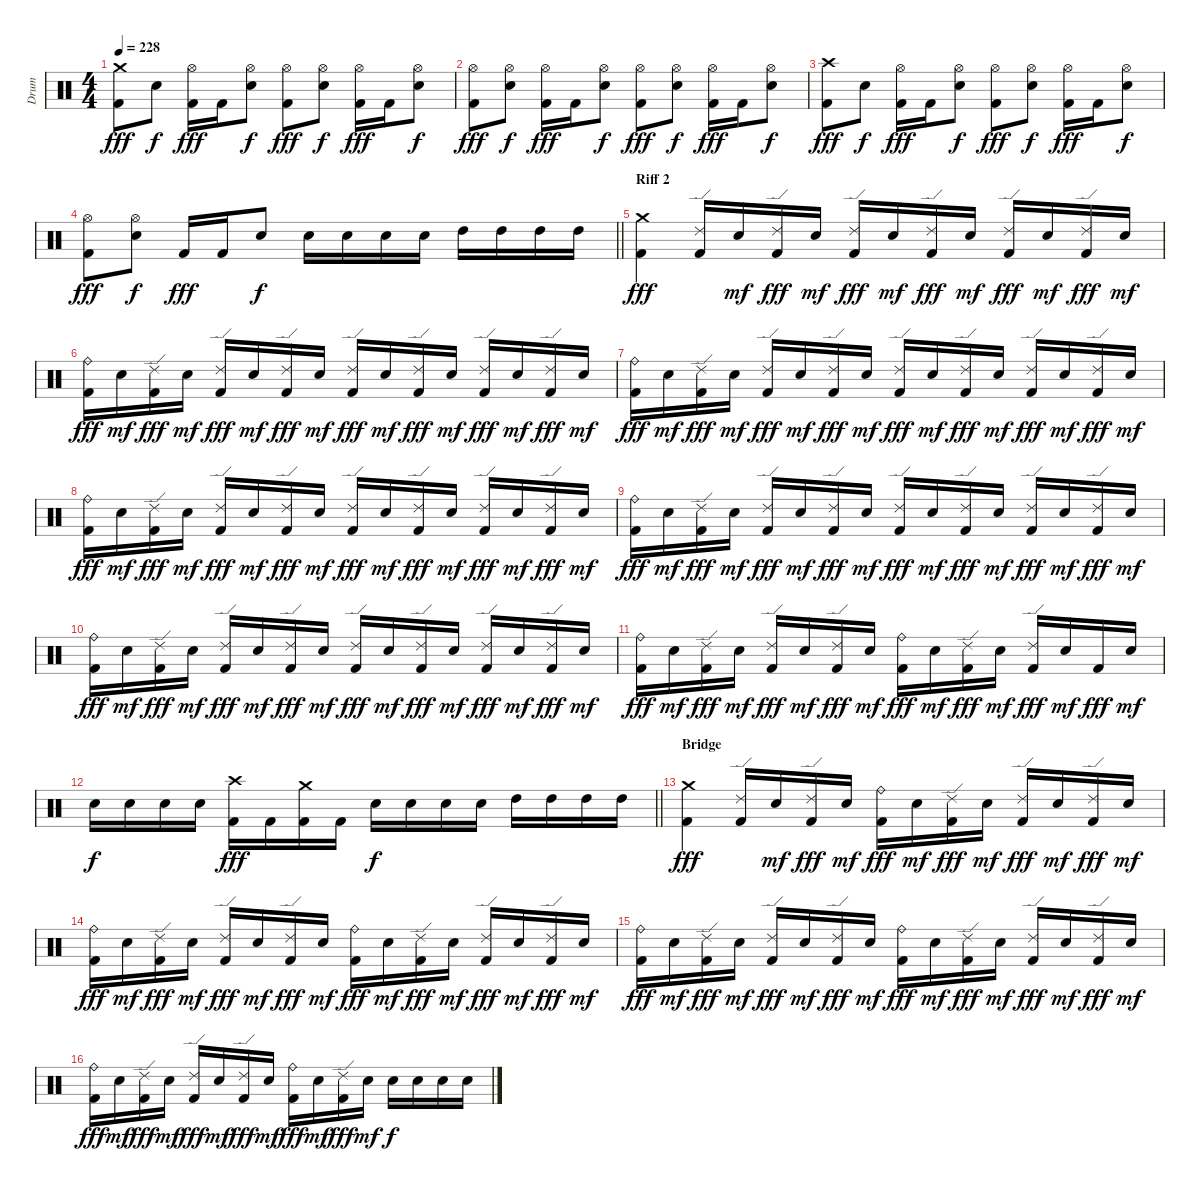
\track ("Drum" "Drum") {instrument percussion}
\staff {score}
\articulation defaults
\ts (4 4)
\tempo 228
\clef neutral
\ks c
("Crash medium (hit)" "Kick (hit) 2").8{dy fff} "Snare (hit) 2".8{dy f} ("Hi-Hat (open)" "Kick (hit) 2").16{dy fff} "Kick (hit) 2".16 ("Hi-Hat (open)" "Snare (hit) 2").8{dy f} ("Hi-Hat (open)" "Kick (hit) 2").8{dy fff} ("Hi-Hat (open)" "Snare (hit) 2").8{dy f} ("Hi-Hat (open)" "Kick (hit) 2").16{dy fff} "Kick (hit) 2".16 ("Hi-Hat (open)" "Snare (hit) 2").8{dy f} |
("Hi-Hat (open)" "Kick (hit) 2").8{dy fff} ("Hi-Hat (open)" "Snare (hit) 2").8{dy f} ("Hi-Hat (open)" "Kick (hit) 2").16{dy fff} "Kick (hit) 2".16 ("Hi-Hat (open)" "Snare (hit) 2").8{dy f} ("Hi-Hat (open)" "Kick (hit) 2").8{dy fff} ("Hi-Hat (open)" "Snare (hit) 2").8{dy f} ("Hi-Hat (open)" "Kick (hit) 2").16{dy fff} "Kick (hit) 2".16 ("Hi-Hat (open)" "Snare (hit) 2").8{dy f} |
("Crash high (hit)" "Kick (hit) 2").8{dy fff} "Snare (hit) 2".8{dy f} ("Hi-Hat (open)" "Kick (hit) 2").16{dy fff} "Kick (hit) 2".16 ("Hi-Hat (open)" "Snare (hit) 2").8{dy f} ("Hi-Hat (open)" "Kick (hit) 2").8{dy fff} ("Hi-Hat (open)" "Snare (hit) 2").8{dy f} ("Hi-Hat (open)" "Kick (hit) 2").16{dy fff} "Kick (hit) 2".16 ("Hi-Hat (open)" "Snare (hit) 2").8{dy f} |
\barLineRight lightlight
("Hi-Hat (open)" "Kick (hit) 2").8{dy fff} ("Hi-Hat (open)" "Snare (hit) 2").8{dy f} "Kick (hit) 2".16{dy fff} "Kick (hit) 2".16 "Snare (hit) 2".8{dy f} "Snare (hit) 2".16 "Snare (hit) 2".16 "Snare (hit) 2".16 "Snare (hit) 2".16 "High Tom (hit)".16 "High Tom (hit)".16 "High Tom (hit)".16 "High Tom (hit)".16 |
\section ("" "Riff 2")
("Crash medium (hit)" "Kick (hit) 2").4{dy fff} ("Ride (edge) 2" "Kick (hit) 2").16 "Snare (hit) 2".16{dy mf} ("Ride (edge) 2" "Kick (hit) 2").16{dy fff} "Snare (hit) 2".16{dy mf} ("Ride (edge) 2" "Kick (hit) 2").16{dy fff} "Snare (hit) 2".16{dy mf} ("Ride (edge) 2" "Kick (hit) 2").16{dy fff} "Snare (hit) 2".16{dy mf} ("Ride (edge) 2" "Kick (hit) 2").16{dy fff} "Snare (hit) 2".16{dy mf} ("Ride (edge) 2" "Kick (hit) 2").16{dy fff} "Snare (hit) 2".16{dy mf} |
("Ride (bell)" "Kick (hit) 2").16{dy fff} "Snare (hit) 2".16{dy mf} ("Ride (edge) 2" "Kick (hit) 2").16{dy fff} "Snare (hit) 2".16{dy mf} ("Ride (edge) 2" "Kick (hit) 2").16{dy fff} "Snare (hit) 2".16{dy mf} ("Ride (edge) 2" "Kick (hit) 2").16{dy fff} "Snare (hit) 2".16{dy mf} ("Ride (edge) 2" "Kick (hit) 2").16{dy fff} "Snare (hit) 2".16{dy mf} ("Ride (edge) 2" "Kick (hit) 2").16{dy fff} "Snare (hit) 2".16{dy mf} ("Ride (edge) 2" "Kick (hit) 2").16{dy fff} "Snare (hit) 2".16{dy mf} ("Ride (edge) 2" "Kick (hit) 2").16{dy fff} "Snare (hit) 2".16{dy mf} |
("Ride (bell)" "Kick (hit) 2").16{dy fff} "Snare (hit) 2".16{dy mf} ("Ride (edge) 2" "Kick (hit) 2").16{dy fff} "Snare (hit) 2".16{dy mf} ("Ride (edge) 2" "Kick (hit) 2").16{dy fff} "Snare (hit) 2".16{dy mf} ("Ride (edge) 2" "Kick (hit) 2").16{dy fff} "Snare (hit) 2".16{dy mf} ("Ride (edge) 2" "Kick (hit) 2").16{dy fff} "Snare (hit) 2".16{dy mf} ("Ride (edge) 2" "Kick (hit) 2").16{dy fff} "Snare (hit) 2".16{dy mf} ("Ride (edge) 2" "Kick (hit) 2").16{dy fff} "Snare (hit) 2".16{dy mf} ("Ride (edge) 2" "Kick (hit) 2").16{dy fff} "Snare (hit) 2".16{dy mf} |
("Ride (bell)" "Kick (hit) 2").16{dy fff} "Snare (hit) 2".16{dy mf} ("Ride (edge) 2" "Kick (hit) 2").16{dy fff} "Snare (hit) 2".16{dy mf} ("Ride (edge) 2" "Kick (hit) 2").16{dy fff} "Snare (hit) 2".16{dy mf} ("Ride (edge) 2" "Kick (hit) 2").16{dy fff} "Snare (hit) 2".16{dy mf} ("Ride (edge) 2" "Kick (hit) 2").16{dy fff} "Snare (hit) 2".16{dy mf} ("Ride (edge) 2" "Kick (hit) 2").16{dy fff} "Snare (hit) 2".16{dy mf} ("Ride (edge) 2" "Kick (hit) 2").16{dy fff} "Snare (hit) 2".16{dy mf} ("Ride (edge) 2" "Kick (hit) 2").16{dy fff} "Snare (hit) 2".16{dy mf} |
("Ride (bell)" "Kick (hit) 2").16{dy fff} "Snare (hit) 2".16{dy mf} ("Ride (edge) 2" "Kick (hit) 2").16{dy fff} "Snare (hit) 2".16{dy mf} ("Ride (edge) 2" "Kick (hit) 2").16{dy fff} "Snare (hit) 2".16{dy mf} ("Ride (edge) 2" "Kick (hit) 2").16{dy fff} "Snare (hit) 2".16{dy mf} ("Ride (edge) 2" "Kick (hit) 2").16{dy fff} "Snare (hit) 2".16{dy mf} ("Ride (edge) 2" "Kick (hit) 2").16{dy fff} "Snare (hit) 2".16{dy mf} ("Ride (edge) 2" "Kick (hit) 2").16{dy fff} "Snare (hit) 2".16{dy mf} ("Ride (edge) 2" "Kick (hit) 2").16{dy fff} "Snare (hit) 2".16{dy mf} |
("Ride (bell)" "Kick (hit) 2").16{dy fff} "Snare (hit) 2".16{dy mf} ("Ride (edge) 2" "Kick (hit) 2").16{dy fff} "Snare (hit) 2".16{dy mf} ("Ride (edge) 2" "Kick (hit) 2").16{dy fff} "Snare (hit) 2".16{dy mf} ("Ride (edge) 2" "Kick (hit) 2").16{dy fff} "Snare (hit) 2".16{dy mf} ("Ride (edge) 2" "Kick (hit) 2").16{dy fff} "Snare (hit) 2".16{dy mf} ("Ride (edge) 2" "Kick (hit) 2").16{dy fff} "Snare (hit) 2".16{dy mf} ("Ride (edge) 2" "Kick (hit) 2").16{dy fff} "Snare (hit) 2".16{dy mf} ("Ride (edge) 2" "Kick (hit) 2").16{dy fff} "Snare (hit) 2".16{dy mf} |
("Ride (bell)" "Kick (hit) 2").16{dy fff} "Snare (hit) 2".16{dy mf} ("Ride (edge) 2" "Kick (hit) 2").16{dy fff} "Snare (hit) 2".16{dy mf} ("Ride (edge) 2" "Kick (hit) 2").16{dy fff} "Snare (hit) 2".16{dy mf} ("Ride (edge) 2" "Kick (hit) 2").16{dy fff} "Snare (hit) 2".16{dy mf} ("Ride (bell)" "Kick (hit) 2").16{dy fff} "Snare (hit) 2".16{dy mf} ("Ride (edge) 2" "Kick (hit) 2").16{dy fff} "Snare (hit) 2".16{dy mf} ("Ride (edge) 2" "Kick (hit) 2").16{dy fff} "Snare (hit) 2".16{dy mf} "Kick (hit) 2".16{dy fff} "Snare (hit) 2".16{dy mf} |
\barLineRight lightlight "Snare (hit) 2".16{dy f} "Snare (hit) 2".16 "Snare (hit) 2".16 "Snare (hit) 2".16
("Crash high (hit)" "Kick (hit) 2").16{dy fff} "Kick (hit) 2".16 ("Crash medium (hit)" "Kick (hit) 2").16 "Kick (hit) 2".16 "Snare (hit) 2".16{dy f} "Snare (hit) 2".16 "Snare (hit) 2".16 "Snare (hit) 2".16 "High Tom (hit)".16 "High Tom (hit)".16 "High Tom (hit)".16 "High Tom (hit)".16 |
\section ("" "Bridge")
("Crash medium (hit)" "Kick (hit) 2").4{dy fff} ("Ride (edge) 2" "Kick (hit) 2").16 "Snare (hit) 2".16{dy mf} ("Ride (edge) 2" "Kick (hit) 2").16{dy fff} "Snare (hit) 2".16{dy mf} ("Ride (bell)" "Kick (hit) 2").16{dy fff} "Snare (hit) 2".16{dy mf} ("Ride (edge) 2" "Kick (hit) 2").16{dy fff} "Snare (hit) 2".16{dy mf} ("Ride (edge) 2" "Kick (hit) 2").16{dy fff} "Snare (hit) 2".16{dy mf} ("Ride (edge) 2" "Kick (hit) 2").16{dy fff} "Snare (hit) 2".16{dy mf} |
("Ride (bell)" "Kick (hit) 2").16{dy fff} "Snare (hit) 2".16{dy mf} ("Ride (edge) 2" "Kick (hit) 2").16{dy fff} "Snare (hit) 2".16{dy mf} ("Ride (edge) 2" "Kick (hit) 2").16{dy fff} "Snare (hit) 2".16{dy mf} ("Ride (edge) 2" "Kick (hit) 2").16{dy fff} "Snare (hit) 2".16{dy mf} ("Ride (bell)" "Kick (hit) 2").16{dy fff} "Snare (hit) 2".16{dy mf} ("Ride (edge) 2" "Kick (hit) 2").16{dy fff} "Snare (hit) 2".16{dy mf} ("Ride (edge) 2" "Kick (hit) 2").16{dy fff} "Snare (hit) 2".16{dy mf} ("Ride (edge) 2" "Kick (hit) 2").16{dy fff} "Snare (hit) 2".16{dy mf} |
("Ride (bell)" "Kick (hit) 2").16{dy fff} "Snare (hit) 2".16{dy mf} ("Ride (edge) 2" "Kick (hit) 2").16{dy fff} "Snare (hit) 2".16{dy mf} ("Ride (edge) 2" "Kick (hit) 2").16{dy fff} "Snare (hit) 2".16{dy mf} ("Ride (edge) 2" "Kick (hit) 2").16{dy fff} "Snare (hit) 2".16{dy mf} ("Ride (bell)" "Kick (hit) 2").16{dy fff} "Snare (hit) 2".16{dy mf} ("Ride (edge) 2" "Kick (hit) 2").16{dy fff} "Snare (hit) 2".16{dy mf} ("Ride (edge) 2" "Kick (hit) 2").16{dy fff} "Snare (hit) 2".16{dy mf} ("Ride (edge) 2" "Kick (hit) 2").16{dy fff} "Snare (hit) 2".16{dy mf} |
("Ride (bell)" "Kick (hit) 2").16{dy fff} "Snare (hit) 2".16{dy mf} ("Ride (edge) 2" "Kick (hit) 2").16{dy fff} "Snare (hit) 2".16{dy mf} ("Ride (edge) 2" "Kick (hit) 2").16{dy fff} "Snare (hit) 2".16{dy mf} ("Ride (edge) 2" "Kick (hit) 2").16{dy fff} "Snare (hit) 2".16{dy mf} ("Ride (bell)" "Kick (hit) 2").16{dy fff} "Snare (hit) 2".16{dy mf} ("Ride (edge) 2" "Kick (hit) 2").16{dy fff} "Snare (hit) 2".16{dy mf} "Snare (hit) 2".16{dy f} "Snare (hit) 2".16 "Snare (hit) 2".16 "Snare (hit) 2".16
